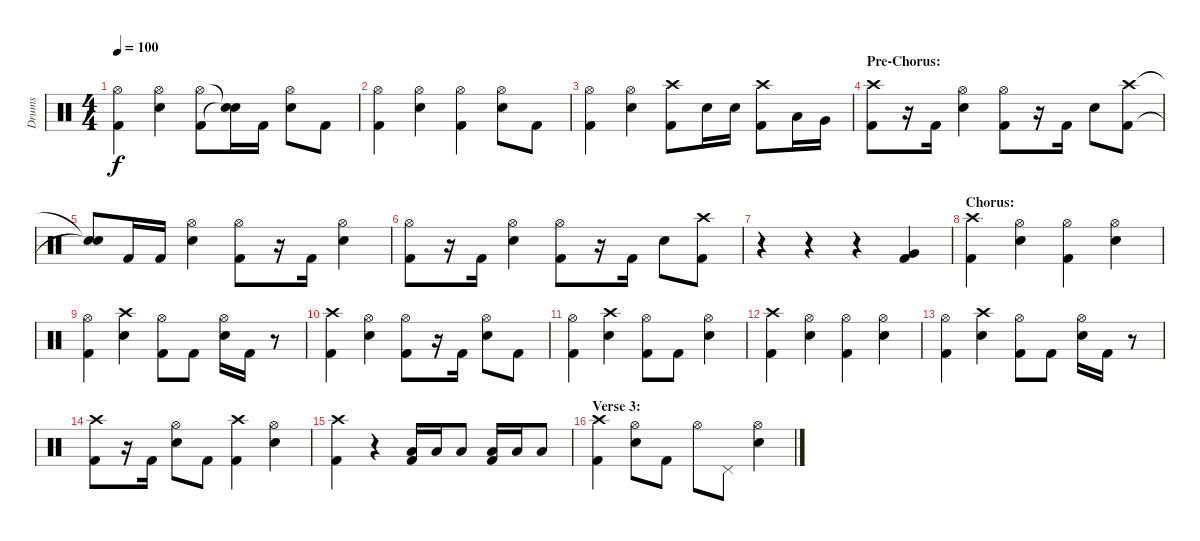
\track ("Drums" "Drums") {instrument percussion}
\staff {score}
\articulation defaults
\ts (4 4)
\tempo 100
\clef neutral
\ks c
("Hi-Hat (open)" "Kick (hit) 2").4{dy f} ("Hi-Hat (open)" "Electric Snare (hit)").4 ("Hi-Hat (open)" "Kick (hit) 2").8 ("Snare (hit)"{t} "Snare (hit)"{t}).16 "Kick (hit) 2".16 ("Hi-Hat (open)" "Electric Snare (hit)").8 "Kick (hit) 2".8 |
("Hi-Hat (open)" "Kick (hit) 2").4 ("Hi-Hat (open)" "Electric Snare (hit)").4 ("Hi-Hat (open)" "Kick (hit) 2").4 ("Hi-Hat (open)" "Electric Snare (hit)").8 "Kick (hit) 2".8 |
("Hi-Hat (open)" "Kick (hit) 2").4 ("Hi-Hat (open)" "Electric Snare (hit)").4 ("Crash high (hit)" "Kick (hit) 2").8 "Electric Snare (hit)".16 "Electric Snare (hit)".16 ("Crash high (hit)" "Kick (hit) 2").8 "Low Tom (hit)".16 "Very Low Tom (hit)".16 |
\section ("" "Pre-Chorus:")
("Crash high (hit)" "Kick (hit) 2").8 r.16 "Kick (hit) 2".16 ("Hi-Hat (open)" "Electric Snare (hit)").4 ("Hi-Hat (open)" "Kick (hit) 2").8 r.16 "Kick (hit) 2".16 "Electric Snare (hit)".8 ("Crash high (hit)" "Kick (hit) 2").8 |
("Snare (hit)"{t} "Snare (hit)"{t}).8 "Kick (hit) 2".16 "Kick (hit) 2".16 ("Hi-Hat (open)" "Electric Snare (hit)").4 ("Hi-Hat (open)" "Kick (hit) 2").8 r.16 "Kick (hit) 2".16 ("Hi-Hat (open)" "Electric Snare (hit)").4 |
("Hi-Hat (open)" "Kick (hit) 2").8 r.16 "Kick (hit) 2".16 ("Hi-Hat (open)" "Electric Snare (hit)").4 ("Hi-Hat (open)" "Kick (hit) 2").8 r.16 "Kick (hit) 2".16 "Electric Snare (hit)".8 ("Crash high (hit)" "Kick (hit) 2").8 |
r.4 r.4 r.4 ("Very Low Tom (hit)" "Kick (hit) 2").4 |
\section ("" "Chorus:")
("Crash high (hit)" "Kick (hit) 2").4 ("Hi-Hat (open)" "Electric Snare (hit)").4 ("Hi-Hat (open)" "Kick (hit) 2").4 ("Hi-Hat (open)" "Electric Snare (hit)").4 |
("Hi-Hat (open)" "Kick (hit) 2").4 ("Crash high (hit)" "Electric Snare (hit)").4 ("Hi-Hat (open)" "Kick (hit) 2").8 "Kick (hit) 2".8 ("Hi-Hat (open)" "Electric Snare (hit)").16 "Kick (hit) 2".16 r.8 |
("Crash high (hit)" "Kick (hit) 2").4 ("Hi-Hat (open)" "Electric Snare (hit)").4 ("Hi-Hat (open)" "Kick (hit) 2").8 r.16 "Kick (hit) 2".16 ("Hi-Hat (open)" "Electric Snare (hit)").8 "Kick (hit) 2".8 |
("Hi-Hat (open)" "Kick (hit) 2").4 ("Crash high (hit)" "Electric Snare (hit)").4 ("Hi-Hat (open)" "Kick (hit) 2").8 "Kick (hit) 2".8 ("Hi-Hat (open)" "Electric Snare (hit)").4 |
("Crash high (hit)" "Kick (hit) 2").4 ("Hi-Hat (open)" "Electric Snare (hit)").4 ("Hi-Hat (open)" "Kick (hit) 2").4 ("Hi-Hat (open)" "Electric Snare (hit)").4 |
("Hi-Hat (open)" "Kick (hit) 2").4 ("Crash high (hit)" "Electric Snare (hit)").4 ("Hi-Hat (open)" "Kick (hit) 2").8 "Kick (hit) 2".8 ("Hi-Hat (open)" "Electric Snare (hit)").16 "Kick (hit) 2".16 r.8 |
("Crash high (hit)" "Kick (hit) 2").8 r.16 "Kick (hit) 2".16 ("Hi-Hat (open)" "Electric Snare (hit)").8 "Kick (hit) 2".8 ("Crash high (hit)" "Kick (hit) 2").4 ("Hi-Hat (open)" "Electric Snare (hit)").4 |
("Crash high (hit)" "Kick (hit) 2").4 r.4 ("Low Tom (hit)" "Kick (hit) 2").16 "Low Tom (hit)".16 "Low Tom (hit)".8 ("Low Tom (hit)" "Kick (hit) 2").16 "Low Tom (hit)".16 "Low Tom (hit)".8 |
\section ("" "Verse 3:")
("Crash high (hit)" "Kick (hit) 2").4 ("Hi-Hat (open)" "Electric Snare (hit)").8 "Kick (hit) 2".8 "Hi-Hat (open)".8 "Pedal Hi-Hat (hit)".8 ("Hi-Hat (open)" "Electric Snare (hit)").4
